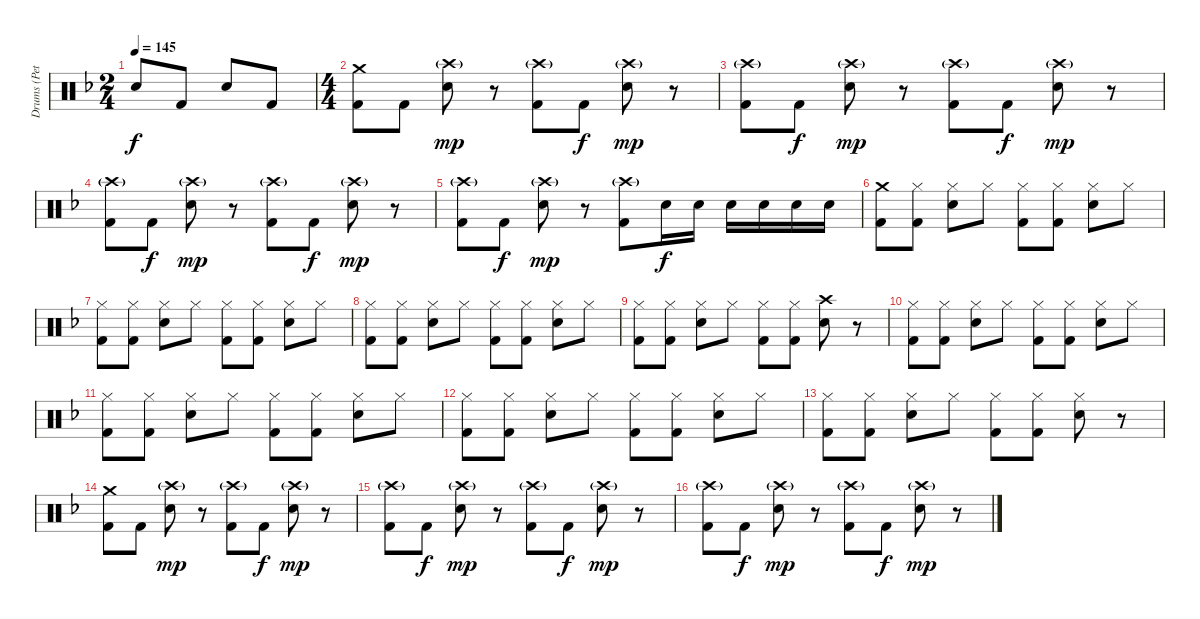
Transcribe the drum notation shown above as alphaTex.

\track ("Drums (Pete)" "Drums (Pet") {instrument percussion}
\staff {score}
\articulation defaults
\ts (2 4)
\tempo 145
\clef neutral
\ks f "Snare (hit) 2".8{dy f} "Kick (hit) 2".8 "Snare (hit) 2".8 "Kick (hit) 2".8
|
\ts (4 4)
("Crash medium (hit)" "Kick (hit) 2").8 "Kick (hit) 2".8 ("Crash high (hit)"{g} "Snare (hit) 2").8{dy mp} r.8 ("Crash high (hit)"{g} "Kick (hit) 2").8 "Kick (hit) 2".8{dy f} ("Crash high (hit)"{g} "Snare (hit) 2").8{dy mp} r.8 |
("Crash high (hit)"{g} "Kick (hit) 2").8 "Kick (hit) 2".8{dy f} ("Crash high (hit)"{g} "Snare (hit) 2").8{dy mp} r.8 ("Crash high (hit)"{g} "Kick (hit) 2").8 "Kick (hit) 2".8{dy f} ("Crash high (hit)"{g} "Snare (hit) 2").8{dy mp} r.8 |
("Crash high (hit)"{g} "Kick (hit) 2").8 "Kick (hit) 2".8{dy f} ("Crash high (hit)"{g} "Snare (hit) 2").8{dy mp} r.8 ("Crash high (hit)"{g} "Kick (hit) 2").8 "Kick (hit) 2".8{dy f} ("Crash high (hit)"{g} "Snare (hit) 2").8{dy mp} r.8 |
("Crash high (hit)"{g} "Kick (hit) 2").8 "Kick (hit) 2".8{dy f} ("Crash high (hit)"{g} "Snare (hit) 2").8{dy mp} r.8 ("Crash high (hit)"{g} "Kick (hit) 2").8 "Snare (hit) 2".16{dy f} "Snare (hit) 2".16 "Snare (hit) 2".16 "Snare (hit) 2".16 "Snare (hit) 2".16 "Snare (hit) 2".16 |
("Crash medium (hit)" "Kick (hit) 2").8 ("Hi-Hat (closed)" "Kick (hit) 2").8 ("Hi-Hat (closed)" "Snare (hit) 2").8 "Hi-Hat (closed)".8 ("Hi-Hat (closed)" "Kick (hit) 2").8 ("Hi-Hat (closed)" "Kick (hit) 2").8 ("Hi-Hat (closed)" "Snare (hit) 2").8 "Hi-Hat (closed)".8 |
("Hi-Hat (closed)" "Kick (hit) 2").8 ("Hi-Hat (closed)" "Kick (hit) 2").8 ("Hi-Hat (closed)" "Snare (hit) 2").8 "Hi-Hat (closed)".8 ("Hi-Hat (closed)" "Kick (hit) 2").8 ("Hi-Hat (closed)" "Kick (hit) 2").8 ("Hi-Hat (closed)" "Snare (hit) 2").8 "Hi-Hat (closed)".8 |
("Hi-Hat (closed)" "Kick (hit) 2").8 ("Hi-Hat (closed)" "Kick (hit) 2").8 ("Hi-Hat (closed)" "Snare (hit) 2").8 "Hi-Hat (closed)".8 ("Hi-Hat (closed)" "Kick (hit) 2").8 ("Hi-Hat (closed)" "Kick (hit) 2").8 ("Hi-Hat (closed)" "Snare (hit) 2").8 "Hi-Hat (closed)".8 |
("Hi-Hat (closed)" "Kick (hit) 2").8 ("Hi-Hat (closed)" "Kick (hit) 2").8 ("Hi-Hat (closed)" "Snare (hit) 2").8 "Hi-Hat (closed)".8 ("Hi-Hat (closed)" "Kick (hit) 2").8 ("Hi-Hat (closed)" "Kick (hit) 2").8 ("Crash high (hit)" "Snare (hit) 2").8 r.8 |
("Hi-Hat (closed)" "Kick (hit) 2").8 ("Hi-Hat (closed)" "Kick (hit) 2").8 ("Hi-Hat (closed)" "Snare (hit) 2").8 "Hi-Hat (closed)".8 ("Hi-Hat (closed)" "Kick (hit) 2").8 ("Hi-Hat (closed)" "Kick (hit) 2").8 ("Hi-Hat (closed)" "Snare (hit) 2").8 "Hi-Hat (closed)".8 |
("Hi-Hat (closed)" "Kick (hit) 2").8 ("Hi-Hat (closed)" "Kick (hit) 2").8 ("Hi-Hat (closed)" "Snare (hit) 2").8 "Hi-Hat (closed)".8 ("Hi-Hat (closed)" "Kick (hit) 2").8 ("Hi-Hat (closed)" "Kick (hit) 2").8 ("Hi-Hat (closed)" "Snare (hit) 2").8 "Hi-Hat (closed)".8 |
("Hi-Hat (closed)" "Kick (hit) 2").8 ("Hi-Hat (closed)" "Kick (hit) 2").8 ("Hi-Hat (closed)" "Snare (hit) 2").8 "Hi-Hat (closed)".8 ("Hi-Hat (closed)" "Kick (hit) 2").8 ("Hi-Hat (closed)" "Kick (hit) 2").8 ("Hi-Hat (closed)" "Snare (hit) 2").8 "Hi-Hat (closed)".8 |
("Hi-Hat (closed)" "Kick (hit) 2").8 ("Hi-Hat (closed)" "Kick (hit) 2").8 ("Hi-Hat (closed)" "Snare (hit) 2").8 "Hi-Hat (closed)".8 ("Hi-Hat (closed)" "Kick (hit) 2").8 ("Hi-Hat (closed)" "Kick (hit) 2").8 ("Hi-Hat (closed)" "Snare (hit) 2").8 r.8 |
("Crash medium (hit)" "Kick (hit) 2").8 "Kick (hit) 2".8 ("Crash high (hit)"{g} "Snare (hit) 2").8{dy mp} r.8 ("Crash high (hit)"{g} "Kick (hit) 2").8 "Kick (hit) 2".8{dy f} ("Crash high (hit)"{g} "Snare (hit) 2").8{dy mp} r.8 |
("Crash high (hit)"{g} "Kick (hit) 2").8 "Kick (hit) 2".8{dy f} ("Crash high (hit)"{g} "Snare (hit) 2").8{dy mp} r.8 ("Crash high (hit)"{g} "Kick (hit) 2").8 "Kick (hit) 2".8{dy f} ("Crash high (hit)"{g} "Snare (hit) 2").8{dy mp} r.8 |
("Crash high (hit)"{g} "Kick (hit) 2").8 "Kick (hit) 2".8{dy f} ("Crash high (hit)"{g} "Snare (hit) 2").8{dy mp} r.8 ("Crash high (hit)"{g} "Kick (hit) 2").8 "Kick (hit) 2".8{dy f} ("Crash high (hit)"{g} "Snare (hit) 2").8{dy mp} r.8
